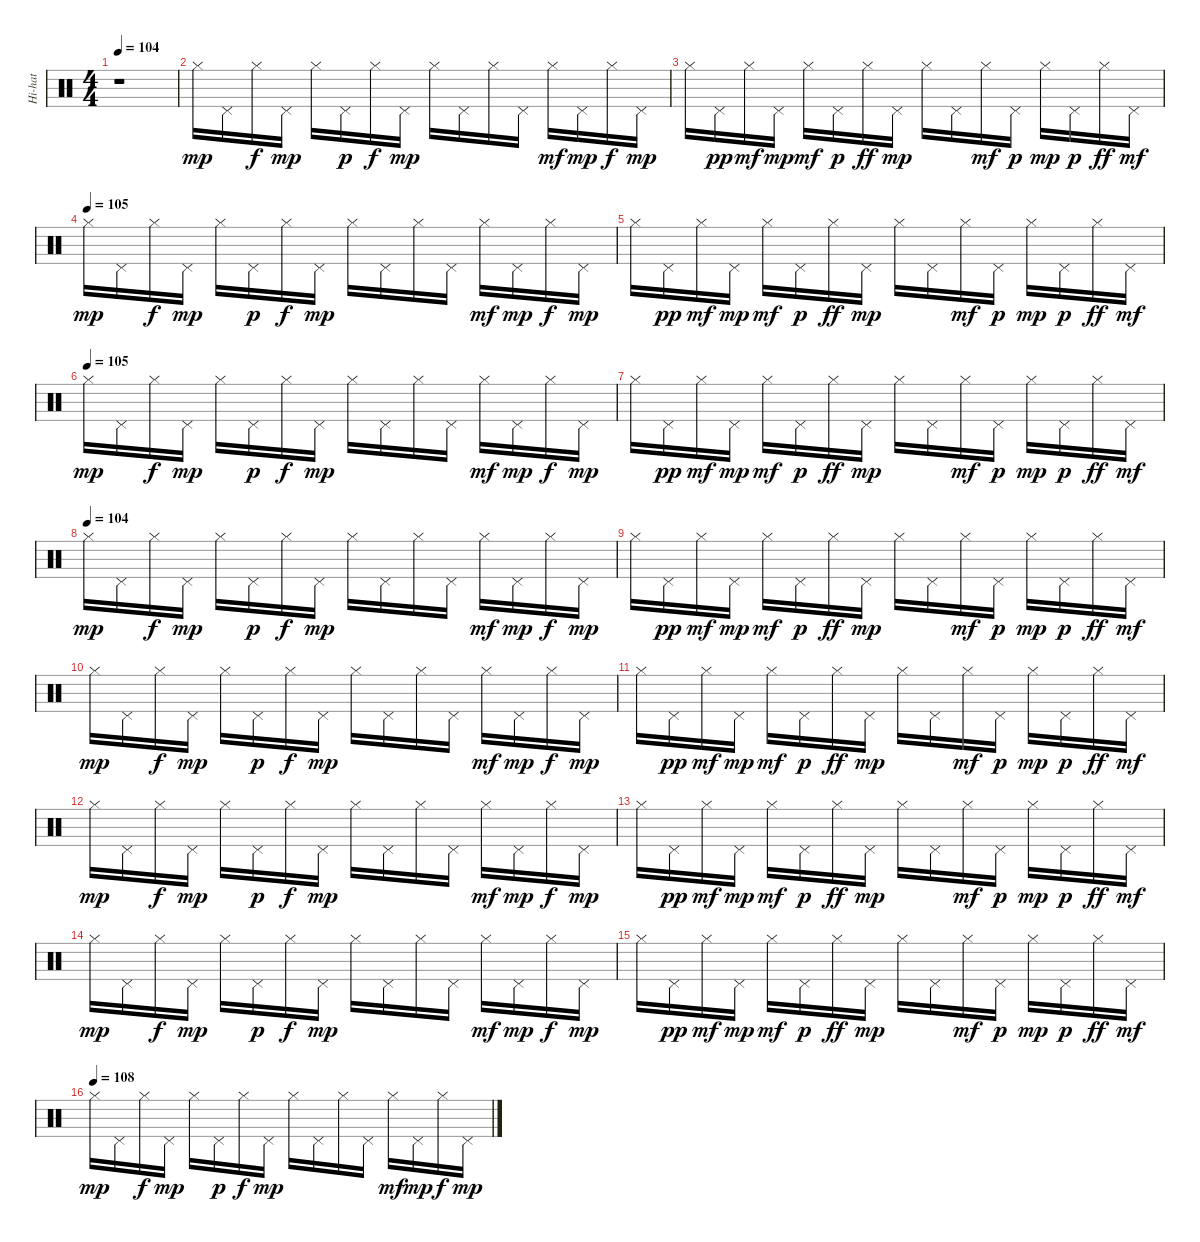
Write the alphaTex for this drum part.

\track ("Hi-hat" "Hi-hat") {instrument percussion}
\staff {score}
\articulation defaults
\ts (4 4)
\tempo 104
\clef neutral
\ks c
r.1{dy mp} |
"Hi-Hat (closed)".16 "Pedal Hi-Hat (hit)".16 "Hi-Hat (closed)".16{dy f} "Pedal Hi-Hat (hit)".16{dy mp} "Hi-Hat (closed)".16 "Pedal Hi-Hat (hit)".16{dy p} "Hi-Hat (closed)".16{dy f} "Pedal Hi-Hat (hit)".16{dy mp} "Hi-Hat (closed)".16 "Pedal Hi-Hat (hit)".16 "Hi-Hat (closed)".16 "Pedal Hi-Hat (hit)".16 "Hi-Hat (closed)".16{dy mf} "Pedal Hi-Hat (hit)".16{dy mp} "Hi-Hat (closed)".16{dy f} "Pedal Hi-Hat (hit)".16{dy mp} |
"Hi-Hat (closed)".16 "Pedal Hi-Hat (hit)".16{dy pp} "Hi-Hat (closed)".16{dy mf} "Pedal Hi-Hat (hit)".16{dy mp} "Hi-Hat (closed)".16{dy mf} "Pedal Hi-Hat (hit)".16{dy p} "Hi-Hat (closed)".16{dy ff} "Pedal Hi-Hat (hit)".16{dy mp} "Hi-Hat (closed)".16 "Pedal Hi-Hat (hit)".16 "Hi-Hat (closed)".16{dy mf} "Pedal Hi-Hat (hit)".16{dy p} "Hi-Hat (closed)".16{dy mp} "Pedal Hi-Hat (hit)".16{dy p} "Hi-Hat (closed)".16{dy ff} "Pedal Hi-Hat (hit)".16{dy mf} |
\tempo (105)
"Hi-Hat (closed)".16{dy mp} "Pedal Hi-Hat (hit)".16 "Hi-Hat (closed)".16{dy f} "Pedal Hi-Hat (hit)".16{dy mp} "Hi-Hat (closed)".16 "Pedal Hi-Hat (hit)".16{dy p} "Hi-Hat (closed)".16{dy f} "Pedal Hi-Hat (hit)".16{dy mp} "Hi-Hat (closed)".16 "Pedal Hi-Hat (hit)".16 "Hi-Hat (closed)".16 "Pedal Hi-Hat (hit)".16 "Hi-Hat (closed)".16{dy mf} "Pedal Hi-Hat (hit)".16{dy mp} "Hi-Hat (closed)".16{dy f} "Pedal Hi-Hat (hit)".16{dy mp} |
"Hi-Hat (closed)".16 "Pedal Hi-Hat (hit)".16{dy pp} "Hi-Hat (closed)".16{dy mf} "Pedal Hi-Hat (hit)".16{dy mp} "Hi-Hat (closed)".16{dy mf} "Pedal Hi-Hat (hit)".16{dy p} "Hi-Hat (closed)".16{dy ff} "Pedal Hi-Hat (hit)".16{dy mp} "Hi-Hat (closed)".16 "Pedal Hi-Hat (hit)".16 "Hi-Hat (closed)".16{dy mf} "Pedal Hi-Hat (hit)".16{dy p} "Hi-Hat (closed)".16{dy mp} "Pedal Hi-Hat (hit)".16{dy p} "Hi-Hat (closed)".16{dy ff} "Pedal Hi-Hat (hit)".16{dy mf} |
\tempo (105)
"Hi-Hat (closed)".16{dy mp} "Pedal Hi-Hat (hit)".16 "Hi-Hat (closed)".16{dy f} "Pedal Hi-Hat (hit)".16{dy mp} "Hi-Hat (closed)".16 "Pedal Hi-Hat (hit)".16{dy p} "Hi-Hat (closed)".16{dy f} "Pedal Hi-Hat (hit)".16{dy mp} "Hi-Hat (closed)".16 "Pedal Hi-Hat (hit)".16 "Hi-Hat (closed)".16 "Pedal Hi-Hat (hit)".16 "Hi-Hat (closed)".16{dy mf} "Pedal Hi-Hat (hit)".16{dy mp} "Hi-Hat (closed)".16{dy f} "Pedal Hi-Hat (hit)".16{dy mp} |
"Hi-Hat (closed)".16 "Pedal Hi-Hat (hit)".16{dy pp} "Hi-Hat (closed)".16{dy mf} "Pedal Hi-Hat (hit)".16{dy mp} "Hi-Hat (closed)".16{dy mf} "Pedal Hi-Hat (hit)".16{dy p} "Hi-Hat (closed)".16{dy ff} "Pedal Hi-Hat (hit)".16{dy mp} "Hi-Hat (closed)".16 "Pedal Hi-Hat (hit)".16 "Hi-Hat (closed)".16{dy mf} "Pedal Hi-Hat (hit)".16{dy p} "Hi-Hat (closed)".16{dy mp} "Pedal Hi-Hat (hit)".16{dy p} "Hi-Hat (closed)".16{dy ff} "Pedal Hi-Hat (hit)".16{dy mf} |
\tempo (104)
"Hi-Hat (closed)".16{dy mp} "Pedal Hi-Hat (hit)".16 "Hi-Hat (closed)".16{dy f} "Pedal Hi-Hat (hit)".16{dy mp} "Hi-Hat (closed)".16 "Pedal Hi-Hat (hit)".16{dy p} "Hi-Hat (closed)".16{dy f} "Pedal Hi-Hat (hit)".16{dy mp} "Hi-Hat (closed)".16 "Pedal Hi-Hat (hit)".16 "Hi-Hat (closed)".16 "Pedal Hi-Hat (hit)".16 "Hi-Hat (closed)".16{dy mf} "Pedal Hi-Hat (hit)".16{dy mp} "Hi-Hat (closed)".16{dy f} "Pedal Hi-Hat (hit)".16{dy mp} |
"Hi-Hat (closed)".16 "Pedal Hi-Hat (hit)".16{dy pp} "Hi-Hat (closed)".16{dy mf} "Pedal Hi-Hat (hit)".16{dy mp} "Hi-Hat (closed)".16{dy mf} "Pedal Hi-Hat (hit)".16{dy p} "Hi-Hat (closed)".16{dy ff} "Pedal Hi-Hat (hit)".16{dy mp} "Hi-Hat (closed)".16 "Pedal Hi-Hat (hit)".16 "Hi-Hat (closed)".16{dy mf} "Pedal Hi-Hat (hit)".16{dy p} "Hi-Hat (closed)".16{dy mp} "Pedal Hi-Hat (hit)".16{dy p} "Hi-Hat (closed)".16{dy ff} "Pedal Hi-Hat (hit)".16{dy mf} |
"Hi-Hat (closed)".16{dy mp} "Pedal Hi-Hat (hit)".16 "Hi-Hat (closed)".16{dy f} "Pedal Hi-Hat (hit)".16{dy mp} "Hi-Hat (closed)".16 "Pedal Hi-Hat (hit)".16{dy p} "Hi-Hat (closed)".16{dy f} "Pedal Hi-Hat (hit)".16{dy mp} "Hi-Hat (closed)".16 "Pedal Hi-Hat (hit)".16 "Hi-Hat (closed)".16 "Pedal Hi-Hat (hit)".16 "Hi-Hat (closed)".16{dy mf} "Pedal Hi-Hat (hit)".16{dy mp} "Hi-Hat (closed)".16{dy f} "Pedal Hi-Hat (hit)".16{dy mp} |
"Hi-Hat (closed)".16 "Pedal Hi-Hat (hit)".16{dy pp} "Hi-Hat (closed)".16{dy mf} "Pedal Hi-Hat (hit)".16{dy mp} "Hi-Hat (closed)".16{dy mf} "Pedal Hi-Hat (hit)".16{dy p} "Hi-Hat (closed)".16{dy ff} "Pedal Hi-Hat (hit)".16{dy mp} "Hi-Hat (closed)".16 "Pedal Hi-Hat (hit)".16 "Hi-Hat (closed)".16{dy mf} "Pedal Hi-Hat (hit)".16{dy p} "Hi-Hat (closed)".16{dy mp} "Pedal Hi-Hat (hit)".16{dy p} "Hi-Hat (closed)".16{dy ff} "Pedal Hi-Hat (hit)".16{dy mf} |
"Hi-Hat (closed)".16{dy mp} "Pedal Hi-Hat (hit)".16 "Hi-Hat (closed)".16{dy f} "Pedal Hi-Hat (hit)".16{dy mp} "Hi-Hat (closed)".16 "Pedal Hi-Hat (hit)".16{dy p} "Hi-Hat (closed)".16{dy f} "Pedal Hi-Hat (hit)".16{dy mp} "Hi-Hat (closed)".16 "Pedal Hi-Hat (hit)".16 "Hi-Hat (closed)".16 "Pedal Hi-Hat (hit)".16 "Hi-Hat (closed)".16{dy mf} "Pedal Hi-Hat (hit)".16{dy mp} "Hi-Hat (closed)".16{dy f} "Pedal Hi-Hat (hit)".16{dy mp} |
"Hi-Hat (closed)".16 "Pedal Hi-Hat (hit)".16{dy pp} "Hi-Hat (closed)".16{dy mf} "Pedal Hi-Hat (hit)".16{dy mp} "Hi-Hat (closed)".16{dy mf} "Pedal Hi-Hat (hit)".16{dy p} "Hi-Hat (closed)".16{dy ff} "Pedal Hi-Hat (hit)".16{dy mp} "Hi-Hat (closed)".16 "Pedal Hi-Hat (hit)".16 "Hi-Hat (closed)".16{dy mf} "Pedal Hi-Hat (hit)".16{dy p} "Hi-Hat (closed)".16{dy mp} "Pedal Hi-Hat (hit)".16{dy p} "Hi-Hat (closed)".16{dy ff} "Pedal Hi-Hat (hit)".16{dy mf} |
"Hi-Hat (closed)".16{dy mp} "Pedal Hi-Hat (hit)".16 "Hi-Hat (closed)".16{dy f} "Pedal Hi-Hat (hit)".16{dy mp} "Hi-Hat (closed)".16 "Pedal Hi-Hat (hit)".16{dy p} "Hi-Hat (closed)".16{dy f} "Pedal Hi-Hat (hit)".16{dy mp} "Hi-Hat (closed)".16 "Pedal Hi-Hat (hit)".16 "Hi-Hat (closed)".16 "Pedal Hi-Hat (hit)".16 "Hi-Hat (closed)".16{dy mf} "Pedal Hi-Hat (hit)".16{dy mp} "Hi-Hat (closed)".16{dy f} "Pedal Hi-Hat (hit)".16{dy mp} |
"Hi-Hat (closed)".16 "Pedal Hi-Hat (hit)".16{dy pp} "Hi-Hat (closed)".16{dy mf} "Pedal Hi-Hat (hit)".16{dy mp} "Hi-Hat (closed)".16{dy mf} "Pedal Hi-Hat (hit)".16{dy p} "Hi-Hat (closed)".16{dy ff} "Pedal Hi-Hat (hit)".16{dy mp} "Hi-Hat (closed)".16 "Pedal Hi-Hat (hit)".16 "Hi-Hat (closed)".16{dy mf} "Pedal Hi-Hat (hit)".16{dy p} "Hi-Hat (closed)".16{dy mp} "Pedal Hi-Hat (hit)".16{dy p} "Hi-Hat (closed)".16{dy ff} "Pedal Hi-Hat (hit)".16{dy mf} |
\tempo (108)
"Hi-Hat (closed)".16{dy mp} "Pedal Hi-Hat (hit)".16 "Hi-Hat (closed)".16{dy f} "Pedal Hi-Hat (hit)".16{dy mp} "Hi-Hat (closed)".16 "Pedal Hi-Hat (hit)".16{dy p} "Hi-Hat (closed)".16{dy f} "Pedal Hi-Hat (hit)".16{dy mp} "Hi-Hat (closed)".16 "Pedal Hi-Hat (hit)".16 "Hi-Hat (closed)".16 "Pedal Hi-Hat (hit)".16 "Hi-Hat (closed)".16{dy mf} "Pedal Hi-Hat (hit)".16{dy mp} "Hi-Hat (closed)".16{dy f} "Pedal Hi-Hat (hit)".16{dy mp}
